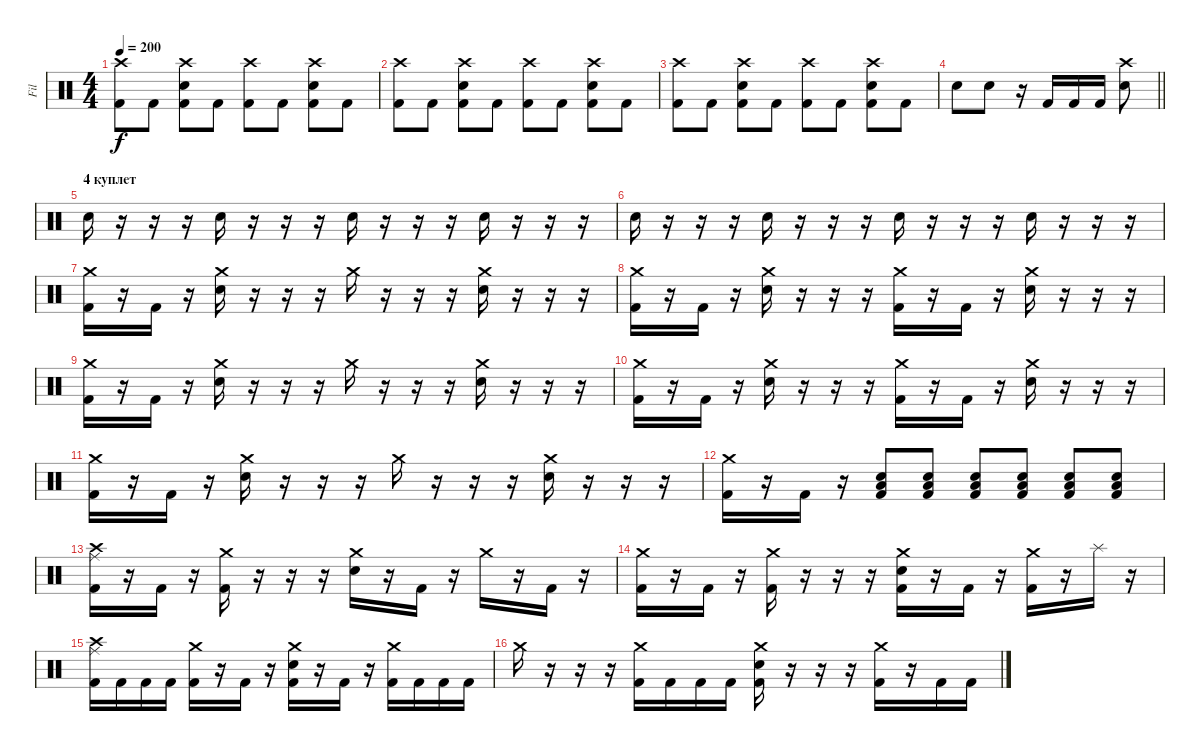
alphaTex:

\track ("Fil" "Fil") {instrument percussion}
\staff {score}
\articulation defaults
\ts (4 4)
\tempo 200
\clef neutral
\ks c
("Crash high (hit)" "Kick (hit) 2").8{dy f} "Kick (hit) 2".8 ("Crash high (hit)" "Electric Snare (hit)" "Kick (hit) 2").8 "Kick (hit) 2".8 ("Crash high (hit)" "Kick (hit) 2").8 "Kick (hit) 2".8 ("Crash high (hit)" "Electric Snare (hit)" "Kick (hit) 2").8 "Kick (hit) 2".8 |
("Crash high (hit)" "Kick (hit) 2").8 "Kick (hit) 2".8 ("Crash high (hit)" "Electric Snare (hit)" "Kick (hit) 2").8 "Kick (hit) 2".8 ("Crash high (hit)" "Kick (hit) 2").8 "Kick (hit) 2".8 ("Crash high (hit)" "Electric Snare (hit)" "Kick (hit) 2").8 "Kick (hit) 2".8 |
("Crash high (hit)" "Kick (hit) 2").8 "Kick (hit) 2".8 ("Crash high (hit)" "Electric Snare (hit)" "Kick (hit) 2").8 "Kick (hit) 2".8 ("Crash high (hit)" "Kick (hit) 2").8 "Kick (hit) 2".8 ("Crash high (hit)" "Electric Snare (hit)" "Kick (hit) 2").8 "Kick (hit) 2".8 |
\barLineRight lightlight "Snare (hit) 2".8 "Snare (hit) 2".8
r.16 "Kick (hit) 2".16 "Kick (hit) 2".16 "Kick (hit) 2".16 ("Snare (hit) 2" "Crash high (hit)").8 |
\section ("" "4 куплет")
"Electric Snare (hit)".16 r.16 r.16 r.16 "Electric Snare (hit)".16 r.16 r.16 r.16 "Electric Snare (hit)".16 r.16 r.16 r.16 "Electric Snare (hit)".16 r.16 r.16 r.16 |
"Electric Snare (hit)".16 r.16 r.16 r.16 "Electric Snare (hit)".16 r.16 r.16 r.16 "Electric Snare (hit)".16 r.16 r.16 r.16 "Electric Snare (hit)".16 r.16 r.16 r.16 |
("Crash medium (hit)" "Kick (hit) 2").16 r.16 "Kick (hit) 2".16 r.16 ("Crash medium (hit)" "Electric Snare (hit)").16 r.16 r.16 r.16 "Crash medium (hit)".16 r.16 r.16 r.16 ("Crash medium (hit)" "Electric Snare (hit)").16 r.16 r.16 r.16 |
("Crash medium (hit)" "Kick (hit) 2").16 r.16 "Kick (hit) 2".16 r.16 ("Crash medium (hit)" "Electric Snare (hit)").16 r.16 r.16 r.16 ("Crash medium (hit)" "Kick (hit) 2").16 r.16 "Kick (hit) 2".16 r.16 ("Crash medium (hit)" "Electric Snare (hit)").16 r.16 r.16 r.16 |
("Crash medium (hit)" "Kick (hit) 2").16 r.16 "Kick (hit) 2".16 r.16 ("Crash medium (hit)" "Electric Snare (hit)").16 r.16 r.16 r.16 "Crash medium (hit)".16 r.16 r.16 r.16 ("Crash medium (hit)" "Electric Snare (hit)").16 r.16 r.16 r.16 |
("Crash medium (hit)" "Kick (hit) 2").16 r.16 "Kick (hit) 2".16 r.16 ("Crash medium (hit)" "Electric Snare (hit)").16 r.16 r.16 r.16 ("Crash medium (hit)" "Kick (hit) 2").16 r.16 "Kick (hit) 2".16 r.16 ("Crash medium (hit)" "Electric Snare (hit)").16 r.16 r.16 r.16 |
("Crash medium (hit)" "Kick (hit) 2").16 r.16 "Kick (hit) 2".16 r.16 ("Crash medium (hit)" "Electric Snare (hit)").16 r.16 r.16 r.16 "Crash medium (hit)".16 r.16 r.16 r.16 ("Crash medium (hit)" "Electric Snare (hit)").16 r.16 r.16 r.16 |
("Crash medium (hit)" "Kick (hit) 2").16 r.16 "Kick (hit) 2".16 r.16 ("Low Tom (hit)" "Electric Snare (hit)" "Kick (hit) 2").8 ("Low Tom (hit)" "Electric Snare (hit)" "Kick (hit) 2").8 ("Low Tom (hit)" "Electric Snare (hit)" "Kick (hit) 2").8 ("Low Tom (hit)" "Electric Snare (hit)" "Kick (hit) 2").8 ("Low Tom (hit)" "Electric Snare (hit)" "Kick (hit) 2").8 ("Low Tom (hit)" "Electric Snare (hit)" "Kick (hit) 2").8 |
("Crash high (hit)" "Ride (middle)" "Kick (hit) 2").16 r.16 "Kick (hit) 2".16 r.16 ("Crash medium (hit)" "Kick (hit) 2").16 r.16 r.16 r.16 ("Crash medium (hit)" "Electric Snare (hit)").16 r.16 "Kick (hit) 2".16 r.16 "Crash medium (hit)".16 r.16 "Kick (hit) 2".16 r.16 |
("Crash medium (hit)" "Kick (hit) 2").16 r.16 "Kick (hit) 2".16 r.16 ("Crash medium (hit)" "Kick (hit) 2").16 r.16 r.16 r.16 ("Crash medium (hit)" "Electric Snare (hit)" "Kick (hit) 2").16 r.16 "Kick (hit) 2".16 r.16 ("Crash medium (hit)" "Kick (hit) 2").16 r.16 "Splash (hit)".16 r.16 |
("Crash high (hit)" "Ride (middle)" "Kick (hit) 2").16 "Kick (hit) 2".16 "Kick (hit) 2".16 "Kick (hit) 2".16 ("Crash medium (hit)" "Kick (hit) 2").16 r.16 "Kick (hit) 2".16 r.16 ("Crash medium (hit)" "Electric Snare (hit)" "Kick (hit) 2").16 r.16 "Kick (hit) 2".16 r.16 ("Crash medium (hit)" "Kick (hit) 2").16 "Kick (hit) 2".16 "Kick (hit) 2".16 "Kick (hit) 2".16 |
"Crash medium (hit)".16 r.16 r.16 r.16 ("Crash medium (hit)" "Kick (hit) 2").16 "Kick (hit) 2".16 "Kick (hit) 2".16 "Kick (hit) 2".16 ("Crash medium (hit)" "Electric Snare (hit)" "Kick (hit) 2").16 r.16 r.16 r.16 ("Crash medium (hit)" "Kick (hit) 2").16 r.16 "Kick (hit) 2".16 "Kick (hit) 2".16
